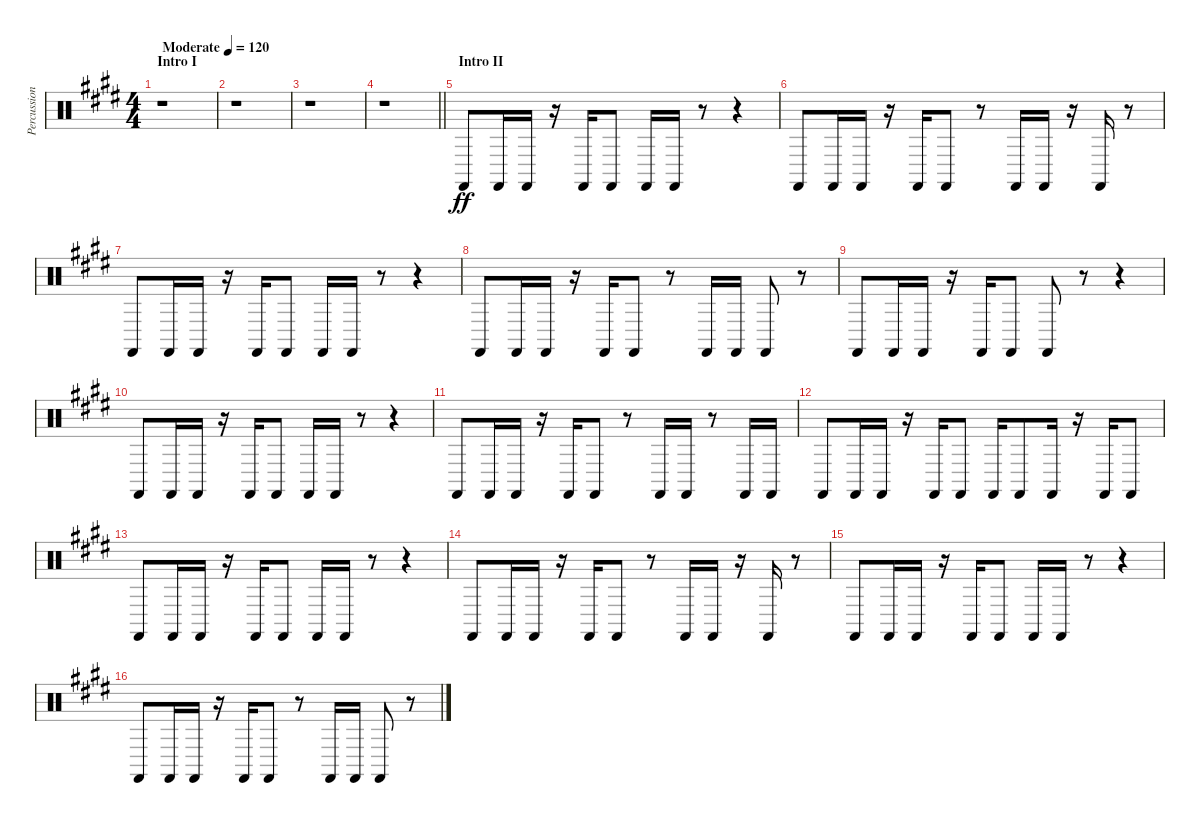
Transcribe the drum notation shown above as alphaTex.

\track ("Percussion V" "Percussion") {instrument percussion}
\staff {score}
\articulation defaults
\ts (4 4)
\section ("" "Intro I")
\tempo (120 "Moderate")
\clef neutral
\ks e
r.1{dy ff} |
r.1 |
r.1 |
\barLineRight lightlight
r.1 |
\section ("" "Intro II")
"Castanets (hit)".8 "Castanets (hit)".16 "Castanets (hit)".16 r.16 "Castanets (hit)".16 "Castanets (hit)".8 "Castanets (hit)".16 "Castanets (hit)".16 r.8 r.4 |
"Castanets (hit)".8 "Castanets (hit)".16 "Castanets (hit)".16 r.16 "Castanets (hit)".16 "Castanets (hit)".8 r.8 "Castanets (hit)".16 "Castanets (hit)".16 r.16 "Castanets (hit)".16 r.8 |
"Castanets (hit)".8 "Castanets (hit)".16 "Castanets (hit)".16 r.16 "Castanets (hit)".16 "Castanets (hit)".8 "Castanets (hit)".16 "Castanets (hit)".16 r.8 r.4 |
"Castanets (hit)".8 "Castanets (hit)".16 "Castanets (hit)".16 r.16 "Castanets (hit)".16 "Castanets (hit)".8 r.8 "Castanets (hit)".16 "Castanets (hit)".16 "Castanets (hit)".8 r.8 |
"Castanets (hit)".8 "Castanets (hit)".16 "Castanets (hit)".16 r.16 "Castanets (hit)".16 "Castanets (hit)".8 "Castanets (hit)".8 r.8 r.4 |
"Castanets (hit)".8 "Castanets (hit)".16 "Castanets (hit)".16 r.16 "Castanets (hit)".16 "Castanets (hit)".8 "Castanets (hit)".16 "Castanets (hit)".16 r.8 r.4 |
"Castanets (hit)".8 "Castanets (hit)".16 "Castanets (hit)".16 r.16 "Castanets (hit)".16 "Castanets (hit)".8 r.8 "Castanets (hit)".16 "Castanets (hit)".16 r.8 "Castanets (hit)".16 "Castanets (hit)".16 |
"Castanets (hit)".8 "Castanets (hit)".16 "Castanets (hit)".16 r.16 "Castanets (hit)".16 "Castanets (hit)".8 "Castanets (hit)".16 "Castanets (hit)".8 "Castanets (hit)".16 r.16 "Castanets (hit)".16 "Castanets (hit)".8 |
"Castanets (hit)".8 "Castanets (hit)".16 "Castanets (hit)".16 r.16 "Castanets (hit)".16 "Castanets (hit)".8 "Castanets (hit)".16 "Castanets (hit)".16 r.8 r.4 |
"Castanets (hit)".8 "Castanets (hit)".16 "Castanets (hit)".16 r.16 "Castanets (hit)".16 "Castanets (hit)".8 r.8 "Castanets (hit)".16 "Castanets (hit)".16 r.16 "Castanets (hit)".16 r.8 |
"Castanets (hit)".8 "Castanets (hit)".16 "Castanets (hit)".16 r.16 "Castanets (hit)".16 "Castanets (hit)".8 "Castanets (hit)".16 "Castanets (hit)".16 r.8 r.4 |
"Castanets (hit)".8 "Castanets (hit)".16 "Castanets (hit)".16 r.16 "Castanets (hit)".16 "Castanets (hit)".8 r.8 "Castanets (hit)".16 "Castanets (hit)".16 "Castanets (hit)".8 r.8
